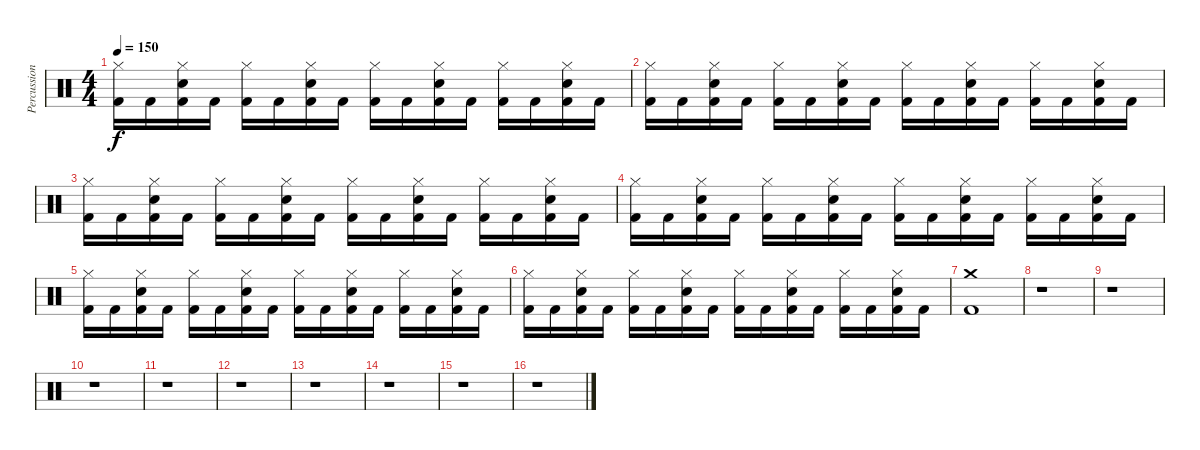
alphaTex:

\track ("Percussioni" "Percussion") {instrument percussion}
\staff {score}
\articulation defaults
\ts (4 4)
\tempo 150
\clef neutral
\ks c
("Hi-Hat (closed)" "Kick (hit) 2").16{dy f} "Kick (hit) 2".16 ("Hi-Hat (closed)" "Electric Snare (hit)" "Kick (hit) 2").16 "Kick (hit) 2".16 ("Hi-Hat (closed)" "Kick (hit) 2").16 "Kick (hit) 2".16 ("Hi-Hat (closed)" "Electric Snare (hit)" "Kick (hit) 2").16 "Kick (hit) 2".16 ("Hi-Hat (closed)" "Kick (hit) 2").16 "Kick (hit) 2".16 ("Hi-Hat (closed)" "Electric Snare (hit)" "Kick (hit) 2").16 "Kick (hit) 2".16 ("Hi-Hat (closed)" "Kick (hit) 2").16 "Kick (hit) 2".16 ("Hi-Hat (closed)" "Electric Snare (hit)" "Kick (hit) 2").16 "Kick (hit) 2".16 |
("Hi-Hat (closed)" "Kick (hit) 2").16 "Kick (hit) 2".16 ("Hi-Hat (closed)" "Electric Snare (hit)" "Kick (hit) 2").16 "Kick (hit) 2".16 ("Hi-Hat (closed)" "Kick (hit) 2").16 "Kick (hit) 2".16 ("Hi-Hat (closed)" "Electric Snare (hit)" "Kick (hit) 2").16 "Kick (hit) 2".16 ("Hi-Hat (closed)" "Kick (hit) 2").16 "Kick (hit) 2".16 ("Hi-Hat (closed)" "Electric Snare (hit)" "Kick (hit) 2").16 "Kick (hit) 2".16 ("Hi-Hat (closed)" "Kick (hit) 2").16 "Kick (hit) 2".16 ("Hi-Hat (closed)" "Electric Snare (hit)" "Kick (hit) 2").16 "Kick (hit) 2".16 |
("Hi-Hat (closed)" "Kick (hit) 2").16 "Kick (hit) 2".16 ("Hi-Hat (closed)" "Electric Snare (hit)" "Kick (hit) 2").16 "Kick (hit) 2".16 ("Hi-Hat (closed)" "Kick (hit) 2").16 "Kick (hit) 2".16 ("Hi-Hat (closed)" "Electric Snare (hit)" "Kick (hit) 2").16 "Kick (hit) 2".16 ("Hi-Hat (closed)" "Kick (hit) 2").16 "Kick (hit) 2".16 ("Hi-Hat (closed)" "Electric Snare (hit)" "Kick (hit) 2").16 "Kick (hit) 2".16 ("Hi-Hat (closed)" "Kick (hit) 2").16 "Kick (hit) 2".16 ("Hi-Hat (closed)" "Electric Snare (hit)" "Kick (hit) 2").16 "Kick (hit) 2".16 |
("Hi-Hat (closed)" "Kick (hit) 2").16 "Kick (hit) 2".16 ("Hi-Hat (closed)" "Electric Snare (hit)" "Kick (hit) 2").16 "Kick (hit) 2".16 ("Hi-Hat (closed)" "Kick (hit) 2").16 "Kick (hit) 2".16 ("Hi-Hat (closed)" "Electric Snare (hit)" "Kick (hit) 2").16 "Kick (hit) 2".16 ("Hi-Hat (closed)" "Kick (hit) 2").16 "Kick (hit) 2".16 ("Hi-Hat (closed)" "Electric Snare (hit)" "Kick (hit) 2").16 "Kick (hit) 2".16 ("Hi-Hat (closed)" "Kick (hit) 2").16 "Kick (hit) 2".16 ("Hi-Hat (closed)" "Electric Snare (hit)" "Kick (hit) 2").16 "Kick (hit) 2".16 |
("Hi-Hat (closed)" "Kick (hit) 2").16 "Kick (hit) 2".16 ("Hi-Hat (closed)" "Electric Snare (hit)" "Kick (hit) 2").16 "Kick (hit) 2".16 ("Hi-Hat (closed)" "Kick (hit) 2").16 "Kick (hit) 2".16 ("Hi-Hat (closed)" "Electric Snare (hit)" "Kick (hit) 2").16 "Kick (hit) 2".16 ("Hi-Hat (closed)" "Kick (hit) 2").16 "Kick (hit) 2".16 ("Hi-Hat (closed)" "Electric Snare (hit)" "Kick (hit) 2").16 "Kick (hit) 2".16 ("Hi-Hat (closed)" "Kick (hit) 2").16 "Kick (hit) 2".16 ("Hi-Hat (closed)" "Electric Snare (hit)" "Kick (hit) 2").16 "Kick (hit) 2".16 |
("Hi-Hat (closed)" "Kick (hit) 2").16 "Kick (hit) 2".16 ("Hi-Hat (closed)" "Electric Snare (hit)" "Kick (hit) 2").16 "Kick (hit) 2".16 ("Hi-Hat (closed)" "Kick (hit) 2").16 "Kick (hit) 2".16 ("Hi-Hat (closed)" "Electric Snare (hit)" "Kick (hit) 2").16 "Kick (hit) 2".16 ("Hi-Hat (closed)" "Kick (hit) 2").16 "Kick (hit) 2".16 ("Hi-Hat (closed)" "Electric Snare (hit)" "Kick (hit) 2").16 "Kick (hit) 2".16 ("Hi-Hat (closed)" "Kick (hit) 2").16 "Kick (hit) 2".16 ("Hi-Hat (closed)" "Electric Snare (hit)" "Kick (hit) 2").16 "Kick (hit) 2".16 |
("Crash medium (hit)" "Kick (hit) 2").1 |
r.1 |
r.1 |
r.1 |
r.1 |
r.1 |
r.1 |
r.1 |
r.1 |
r.1
